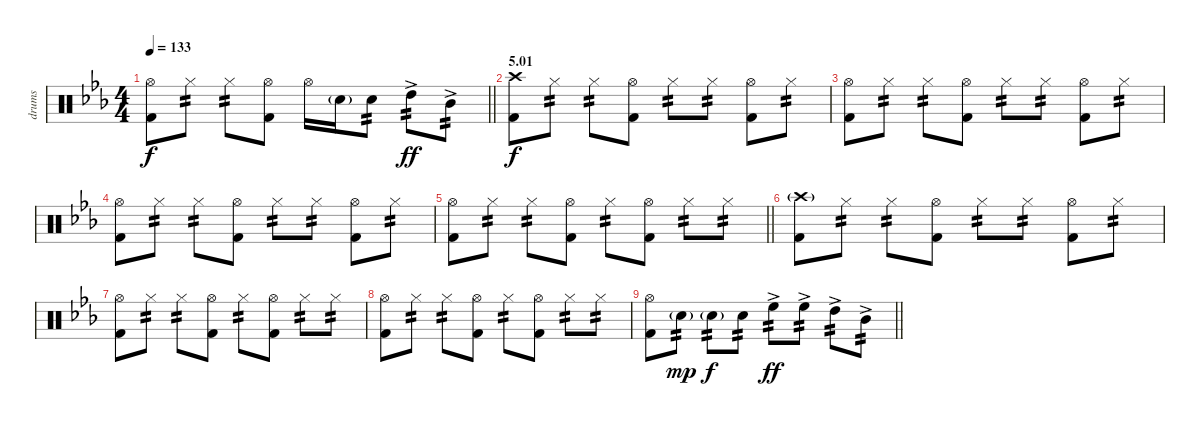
\track ("drums" "drums") {instrument percussion}
\staff {score}
\articulation defaults
\ts (4 4)
\tempo 133
\clef neutral
\barLineRight lightlight
\ks eb
("Hi-Hat (open)" "Kick (hit) 2").8{dy f} "Hi-Hat (closed)".8{tp 2} "Hi-Hat (closed)".8{tp 2} ("Hi-Hat (open)" "Kick (hit) 2").8 "Hi-Hat (open)".16 "Electric Snare (hit)"{g}.16 "Electric Snare (hit)".8{tp 2} "High Tom (hit)"{ac}.8{tp 2 dy ff} "Mid Tom (hit)"{ac}.8{tp 2} |
\section ("" "5.01")
("Crash high (hit)" "Kick (hit) 2").8{dy f} "Hi-Hat (closed)".8{tp 2} "Hi-Hat (closed)".8{tp 2} ("Hi-Hat (open)" "Kick (hit) 2").8 "Hi-Hat (closed)".8{tp 2} "Hi-Hat (closed)".8{tp 2} ("Hi-Hat (open)" "Kick (hit) 2").8 "Hi-Hat (closed)".8{tp 2} |
("Hi-Hat (open)" "Kick (hit) 2").8 "Hi-Hat (closed)".8{tp 2} "Hi-Hat (closed)".8{tp 2} ("Hi-Hat (open)" "Kick (hit) 2").8 "Hi-Hat (closed)".8{tp 2} "Hi-Hat (closed)".8{tp 2} ("Hi-Hat (open)" "Kick (hit) 2").8 "Hi-Hat (closed)".8{tp 2} |
("Hi-Hat (open)" "Kick (hit) 2").8 "Hi-Hat (closed)".8{tp 2} "Hi-Hat (closed)".8{tp 2} ("Hi-Hat (open)" "Kick (hit) 2").8 "Hi-Hat (closed)".8{tp 2} "Hi-Hat (closed)".8{tp 2} ("Hi-Hat (open)" "Kick (hit) 2").8 "Hi-Hat (closed)".8{tp 2} |
\barLineRight lightlight
("Hi-Hat (open)" "Kick (hit) 2").8 "Hi-Hat (closed)".8{tp 2} "Hi-Hat (closed)".8{tp 2} ("Hi-Hat (open)" "Kick (hit) 2").8 "Hi-Hat (closed)".8{tp 2} ("Hi-Hat (open)" "Kick (hit) 2").8 "Hi-Hat (closed)".8{tp 2} "Hi-Hat (closed)".8{tp 2} |
("Crash high (hit)"{g} "Kick (hit) 2").8 "Hi-Hat (closed)".8{tp 2} "Hi-Hat (closed)".8{tp 2} ("Hi-Hat (open)" "Kick (hit) 2").8 "Hi-Hat (closed)".8{tp 2} "Hi-Hat (closed)".8{tp 2} ("Hi-Hat (open)" "Kick (hit) 2").8 "Hi-Hat (closed)".8{tp 2} |
("Hi-Hat (open)" "Kick (hit) 2").8 "Hi-Hat (closed)".8{tp 2} "Hi-Hat (closed)".8{tp 2} ("Hi-Hat (open)" "Kick (hit) 2").8 "Hi-Hat (closed)".8{tp 2} ("Hi-Hat (open)" "Kick (hit) 2").8 "Hi-Hat (closed)".8{tp 2} "Hi-Hat (closed)".8{tp 2} |
("Hi-Hat (open)" "Kick (hit) 2").8 "Hi-Hat (closed)".8{tp 2} "Hi-Hat (closed)".8{tp 2} ("Hi-Hat (open)" "Kick (hit) 2").8 "Hi-Hat (closed)".8{tp 2} ("Hi-Hat (open)" "Kick (hit) 2").8 "Hi-Hat (closed)".8{tp 2} "Hi-Hat (closed)".8{tp 2} |
\barLineRight lightlight
("Hi-Hat (open)" "Kick (hit) 2").8 "Electric Snare (hit)"{g}.8{tp 2 dy mp} "Electric Snare (hit)"{g}.8{tp 2 dy f} "Electric Snare (hit)".8{tp 2} "High Floor Tom (hit)"{ac}.8{tp 2 dy ff} "High Floor Tom (hit)"{ac}.8{tp 2} "High Tom (hit)"{ac}.8{tp 2} "Mid Tom (hit)"{ac}.8{tp 2}
